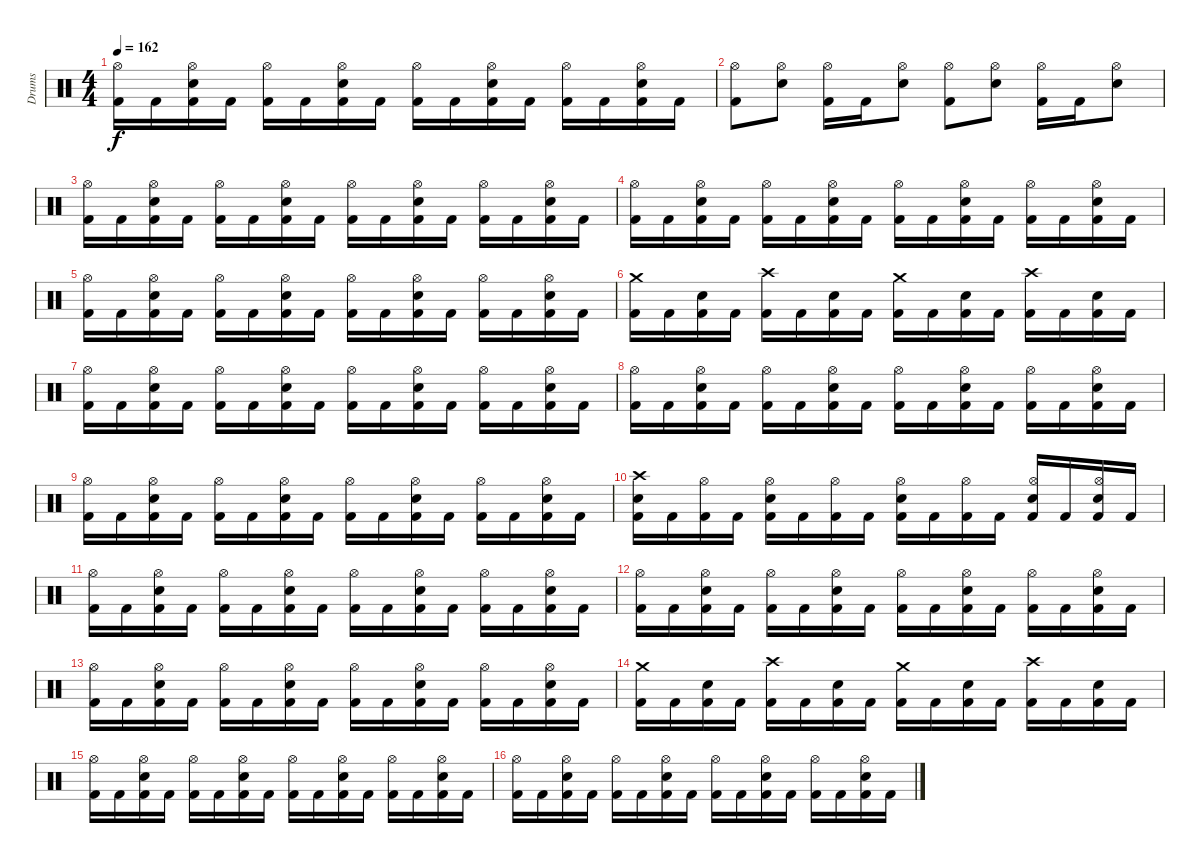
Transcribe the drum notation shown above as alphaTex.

\track ("Drums" "Drums") {instrument percussion}
\staff {score}
\articulation defaults
\ts (4 4)
\tempo 162
\clef neutral
\ks c
("Kick (hit) 2" "Hi-Hat (open)").16{dy f} "Kick (hit) 2".16 ("Kick (hit) 2" "Snare (hit) 2" "Hi-Hat (open)").16 "Kick (hit) 2".16 ("Kick (hit) 2" "Hi-Hat (open)").16 "Kick (hit) 2".16 ("Kick (hit) 2" "Snare (hit) 2" "Hi-Hat (open)").16 "Kick (hit) 2".16 ("Kick (hit) 2" "Hi-Hat (open)").16 "Kick (hit) 2".16 ("Kick (hit) 2" "Snare (hit) 2" "Hi-Hat (open)").16 "Kick (hit) 2".16 ("Kick (hit) 2" "Hi-Hat (open)").16 "Kick (hit) 2".16 ("Kick (hit) 2" "Snare (hit) 2" "Hi-Hat (open)").16 "Kick (hit) 2".16 |
("Kick (hit) 2" "Hi-Hat (open)").8 ("Snare (hit) 2" "Hi-Hat (open)").8 ("Kick (hit) 2" "Hi-Hat (open)").16 "Kick (hit) 2".16 ("Snare (hit) 2" "Hi-Hat (open)").8 ("Kick (hit) 2" "Hi-Hat (open)").8 ("Snare (hit) 2" "Hi-Hat (open)").8 ("Kick (hit) 2" "Hi-Hat (open)").16 "Kick (hit) 2".16 ("Snare (hit) 2" "Hi-Hat (open)").8 |
\section ("" "")
("Kick (hit) 2" "Hi-Hat (open)").16 "Kick (hit) 2".16 ("Kick (hit) 2" "Snare (hit) 2" "Hi-Hat (open)").16 "Kick (hit) 2".16 ("Kick (hit) 2" "Hi-Hat (open)").16 "Kick (hit) 2".16 ("Kick (hit) 2" "Snare (hit) 2" "Hi-Hat (open)").16 "Kick (hit) 2".16 ("Kick (hit) 2" "Hi-Hat (open)").16 "Kick (hit) 2".16 ("Kick (hit) 2" "Snare (hit) 2" "Hi-Hat (open)").16 "Kick (hit) 2".16 ("Kick (hit) 2" "Hi-Hat (open)").16 "Kick (hit) 2".16 ("Kick (hit) 2" "Snare (hit) 2" "Hi-Hat (open)").16 "Kick (hit) 2".16 |
("Kick (hit) 2" "Hi-Hat (open)").16 "Kick (hit) 2".16 ("Kick (hit) 2" "Snare (hit) 2" "Hi-Hat (open)").16 "Kick (hit) 2".16 ("Kick (hit) 2" "Hi-Hat (open)").16 "Kick (hit) 2".16 ("Kick (hit) 2" "Snare (hit) 2" "Hi-Hat (open)").16 "Kick (hit) 2".16 ("Kick (hit) 2" "Hi-Hat (open)").16 "Kick (hit) 2".16 ("Kick (hit) 2" "Snare (hit) 2" "Hi-Hat (open)").16 "Kick (hit) 2".16 ("Kick (hit) 2" "Hi-Hat (open)").16 "Kick (hit) 2".16 ("Kick (hit) 2" "Snare (hit) 2" "Hi-Hat (open)").16 "Kick (hit) 2".16 |
("Kick (hit) 2" "Hi-Hat (open)").16 "Kick (hit) 2".16 ("Kick (hit) 2" "Snare (hit) 2" "Hi-Hat (open)").16 "Kick (hit) 2".16 ("Kick (hit) 2" "Hi-Hat (open)").16 "Kick (hit) 2".16 ("Kick (hit) 2" "Snare (hit) 2" "Hi-Hat (open)").16 "Kick (hit) 2".16 ("Kick (hit) 2" "Hi-Hat (open)").16 "Kick (hit) 2".16 ("Kick (hit) 2" "Snare (hit) 2" "Hi-Hat (open)").16 "Kick (hit) 2".16 ("Kick (hit) 2" "Hi-Hat (open)").16 "Kick (hit) 2".16 ("Kick (hit) 2" "Snare (hit) 2" "Hi-Hat (open)").16 "Kick (hit) 2".16 |
("Kick (hit) 2" "Crash medium (hit)").16 "Kick (hit) 2".16 ("Kick (hit) 2" "Snare (hit) 2").16 "Kick (hit) 2".16 ("Kick (hit) 2" "Crash high (hit)").16 "Kick (hit) 2".16 ("Kick (hit) 2" "Snare (hit) 2").16 "Kick (hit) 2".16 ("Kick (hit) 2" "Crash medium (hit)").16 "Kick (hit) 2".16 ("Kick (hit) 2" "Snare (hit) 2").16 "Kick (hit) 2".16 ("Kick (hit) 2" "Crash high (hit)").16 "Kick (hit) 2".16 ("Kick (hit) 2" "Snare (hit) 2").16 "Kick (hit) 2".16 |
("Kick (hit) 2" "Hi-Hat (open)").16 "Kick (hit) 2".16 ("Kick (hit) 2" "Snare (hit) 2" "Hi-Hat (open)").16 "Kick (hit) 2".16 ("Kick (hit) 2" "Hi-Hat (open)").16 "Kick (hit) 2".16 ("Kick (hit) 2" "Snare (hit) 2" "Hi-Hat (open)").16 "Kick (hit) 2".16 ("Kick (hit) 2" "Hi-Hat (open)").16 "Kick (hit) 2".16 ("Kick (hit) 2" "Snare (hit) 2" "Hi-Hat (open)").16 "Kick (hit) 2".16 ("Kick (hit) 2" "Hi-Hat (open)").16 "Kick (hit) 2".16 ("Kick (hit) 2" "Snare (hit) 2" "Hi-Hat (open)").16 "Kick (hit) 2".16 |
("Kick (hit) 2" "Hi-Hat (open)").16 "Kick (hit) 2".16 ("Kick (hit) 2" "Snare (hit) 2" "Hi-Hat (open)").16 "Kick (hit) 2".16 ("Kick (hit) 2" "Hi-Hat (open)").16 "Kick (hit) 2".16 ("Kick (hit) 2" "Snare (hit) 2" "Hi-Hat (open)").16 "Kick (hit) 2".16 ("Kick (hit) 2" "Hi-Hat (open)").16 "Kick (hit) 2".16 ("Kick (hit) 2" "Snare (hit) 2" "Hi-Hat (open)").16 "Kick (hit) 2".16 ("Kick (hit) 2" "Hi-Hat (open)").16 "Kick (hit) 2".16 ("Kick (hit) 2" "Snare (hit) 2" "Hi-Hat (open)").16 "Kick (hit) 2".16 |
("Kick (hit) 2" "Hi-Hat (open)").16 "Kick (hit) 2".16 ("Kick (hit) 2" "Snare (hit) 2" "Hi-Hat (open)").16 "Kick (hit) 2".16 ("Kick (hit) 2" "Hi-Hat (open)").16 "Kick (hit) 2".16 ("Kick (hit) 2" "Snare (hit) 2" "Hi-Hat (open)").16 "Kick (hit) 2".16 ("Kick (hit) 2" "Hi-Hat (open)").16 "Kick (hit) 2".16 ("Kick (hit) 2" "Snare (hit) 2" "Hi-Hat (open)").16 "Kick (hit) 2".16 ("Kick (hit) 2" "Hi-Hat (open)").16 "Kick (hit) 2".16 ("Kick (hit) 2" "Snare (hit) 2" "Hi-Hat (open)").16 "Kick (hit) 2".16 |
("Kick (hit) 2" "Snare (hit) 2" "Crash high (hit)").16 "Kick (hit) 2".16 ("Kick (hit) 2" "Hi-Hat (open)").16 "Kick (hit) 2".16 ("Kick (hit) 2" "Snare (hit) 2" "Hi-Hat (open)").16 "Kick (hit) 2".16 ("Kick (hit) 2" "Hi-Hat (open)").16 "Kick (hit) 2".16 ("Kick (hit) 2" "Snare (hit) 2" "Hi-Hat (open)").16 "Kick (hit) 2".16 ("Kick (hit) 2" "Hi-Hat (open)").16 "Kick (hit) 2".16 ("Kick (hit) 2" "Snare (hit) 2" "Hi-Hat (open)").16 "Kick (hit) 2".16 ("Kick (hit) 2" "Snare (hit) 2" "Hi-Hat (open)").16 "Kick (hit) 2".16 |
("Kick (hit) 2" "Hi-Hat (open)").16 "Kick (hit) 2".16 ("Kick (hit) 2" "Snare (hit) 2" "Hi-Hat (open)").16 "Kick (hit) 2".16 ("Kick (hit) 2" "Hi-Hat (open)").16 "Kick (hit) 2".16 ("Kick (hit) 2" "Snare (hit) 2" "Hi-Hat (open)").16 "Kick (hit) 2".16 ("Kick (hit) 2" "Hi-Hat (open)").16 "Kick (hit) 2".16 ("Kick (hit) 2" "Snare (hit) 2" "Hi-Hat (open)").16 "Kick (hit) 2".16 ("Kick (hit) 2" "Hi-Hat (open)").16 "Kick (hit) 2".16 ("Kick (hit) 2" "Snare (hit) 2" "Hi-Hat (open)").16 "Kick (hit) 2".16 |
("Kick (hit) 2" "Hi-Hat (open)").16 "Kick (hit) 2".16 ("Kick (hit) 2" "Snare (hit) 2" "Hi-Hat (open)").16 "Kick (hit) 2".16 ("Kick (hit) 2" "Hi-Hat (open)").16 "Kick (hit) 2".16 ("Kick (hit) 2" "Snare (hit) 2" "Hi-Hat (open)").16 "Kick (hit) 2".16 ("Kick (hit) 2" "Hi-Hat (open)").16 "Kick (hit) 2".16 ("Kick (hit) 2" "Snare (hit) 2" "Hi-Hat (open)").16 "Kick (hit) 2".16 ("Kick (hit) 2" "Hi-Hat (open)").16 "Kick (hit) 2".16 ("Kick (hit) 2" "Snare (hit) 2" "Hi-Hat (open)").16 "Kick (hit) 2".16 |
("Kick (hit) 2" "Hi-Hat (open)").16 "Kick (hit) 2".16 ("Kick (hit) 2" "Snare (hit) 2" "Hi-Hat (open)").16 "Kick (hit) 2".16 ("Kick (hit) 2" "Hi-Hat (open)").16 "Kick (hit) 2".16 ("Kick (hit) 2" "Snare (hit) 2" "Hi-Hat (open)").16 "Kick (hit) 2".16 ("Kick (hit) 2" "Hi-Hat (open)").16 "Kick (hit) 2".16 ("Kick (hit) 2" "Snare (hit) 2" "Hi-Hat (open)").16 "Kick (hit) 2".16 ("Kick (hit) 2" "Hi-Hat (open)").16 "Kick (hit) 2".16 ("Kick (hit) 2" "Snare (hit) 2" "Hi-Hat (open)").16 "Kick (hit) 2".16 |
("Kick (hit) 2" "Crash medium (hit)").16 "Kick (hit) 2".16 ("Kick (hit) 2" "Snare (hit) 2").16 "Kick (hit) 2".16 ("Kick (hit) 2" "Crash high (hit)").16 "Kick (hit) 2".16 ("Kick (hit) 2" "Snare (hit) 2").16 "Kick (hit) 2".16 ("Kick (hit) 2" "Crash medium (hit)").16 "Kick (hit) 2".16 ("Kick (hit) 2" "Snare (hit) 2").16 "Kick (hit) 2".16 ("Kick (hit) 2" "Crash high (hit)").16 "Kick (hit) 2".16 ("Kick (hit) 2" "Snare (hit) 2").16 "Kick (hit) 2".16 |
("Kick (hit) 2" "Hi-Hat (open)").16 "Kick (hit) 2".16 ("Kick (hit) 2" "Snare (hit) 2" "Hi-Hat (open)").16 "Kick (hit) 2".16 ("Kick (hit) 2" "Hi-Hat (open)").16 "Kick (hit) 2".16 ("Kick (hit) 2" "Snare (hit) 2" "Hi-Hat (open)").16 "Kick (hit) 2".16 ("Kick (hit) 2" "Hi-Hat (open)").16 "Kick (hit) 2".16 ("Kick (hit) 2" "Snare (hit) 2" "Hi-Hat (open)").16 "Kick (hit) 2".16 ("Kick (hit) 2" "Hi-Hat (open)").16 "Kick (hit) 2".16 ("Kick (hit) 2" "Snare (hit) 2" "Hi-Hat (open)").16 "Kick (hit) 2".16 |
("Kick (hit) 2" "Hi-Hat (open)").16 "Kick (hit) 2".16 ("Kick (hit) 2" "Snare (hit) 2" "Hi-Hat (open)").16 "Kick (hit) 2".16 ("Kick (hit) 2" "Hi-Hat (open)").16 "Kick (hit) 2".16 ("Kick (hit) 2" "Snare (hit) 2" "Hi-Hat (open)").16 "Kick (hit) 2".16 ("Kick (hit) 2" "Hi-Hat (open)").16 "Kick (hit) 2".16 ("Kick (hit) 2" "Snare (hit) 2" "Hi-Hat (open)").16 "Kick (hit) 2".16 ("Kick (hit) 2" "Hi-Hat (open)").16 "Kick (hit) 2".16 ("Kick (hit) 2" "Snare (hit) 2" "Hi-Hat (open)").16 "Kick (hit) 2".16
